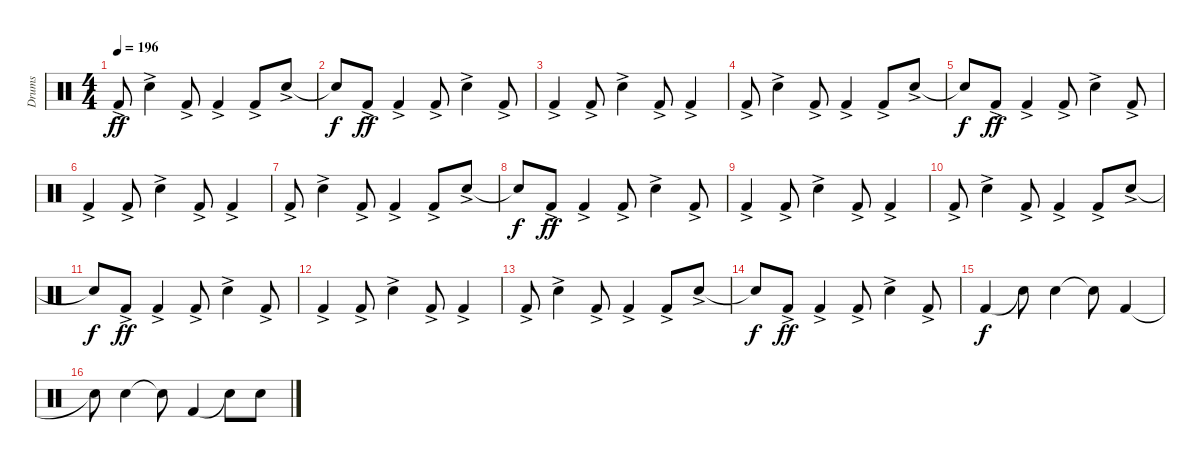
\track ("Drums" "Drums") {instrument percussion}
\staff {score}
\articulation defaults
\ts (4 4)
\tempo 196
\clef neutral
\ks c "Kick (hit) 2"{ac}.8{dy ff} "Electric Snare (hit)"{ac}.4 "Kick (hit) 2"{ac}.8 "Kick (hit) 2"{ac}.4 "Kick (hit) 2"{ac}.8 "Electric Snare (hit)"{ac}.8
|
"Snare (hit)"{t}.8{dy f} "Kick (hit) 2"{ac}.8{dy ff} "Kick (hit) 2"{ac}.4 "Kick (hit) 2"{ac}.8 "Electric Snare (hit)"{ac}.4 "Kick (hit) 2"{ac}.8 |
"Kick (hit) 2"{ac}.4 "Kick (hit) 2"{ac}.8 "Electric Snare (hit)"{ac}.4 "Kick (hit) 2"{ac}.8 "Kick (hit) 2"{ac}.4 |
"Kick (hit) 2"{ac}.8 "Electric Snare (hit)"{ac}.4 "Kick (hit) 2"{ac}.8 "Kick (hit) 2"{ac}.4 "Kick (hit) 2"{ac}.8 "Electric Snare (hit)"{ac}.8 |
"Snare (hit)"{t}.8{dy f} "Kick (hit) 2"{ac}.8{dy ff} "Kick (hit) 2"{ac}.4 "Kick (hit) 2"{ac}.8 "Electric Snare (hit)"{ac}.4 "Kick (hit) 2"{ac}.8 |
"Kick (hit) 2"{ac}.4 "Kick (hit) 2"{ac}.8 "Electric Snare (hit)"{ac}.4 "Kick (hit) 2"{ac}.8 "Kick (hit) 2"{ac}.4 |
"Kick (hit) 2"{ac}.8 "Electric Snare (hit)"{ac}.4 "Kick (hit) 2"{ac}.8 "Kick (hit) 2"{ac}.4 "Kick (hit) 2"{ac}.8 "Electric Snare (hit)"{ac}.8 |
"Snare (hit)"{t}.8{dy f} "Kick (hit) 2"{ac}.8{dy ff} "Kick (hit) 2"{ac}.4 "Kick (hit) 2"{ac}.8 "Electric Snare (hit)"{ac}.4 "Kick (hit) 2"{ac}.8 |
"Kick (hit) 2"{ac}.4 "Kick (hit) 2"{ac}.8 "Electric Snare (hit)"{ac}.4 "Kick (hit) 2"{ac}.8 "Kick (hit) 2"{ac}.4 |
"Kick (hit) 2"{ac}.8 "Electric Snare (hit)"{ac}.4 "Kick (hit) 2"{ac}.8 "Kick (hit) 2"{ac}.4 "Kick (hit) 2"{ac}.8 "Electric Snare (hit)"{ac}.8 |
"Snare (hit)"{t}.8{dy f} "Kick (hit) 2"{ac}.8{dy ff} "Kick (hit) 2"{ac}.4 "Kick (hit) 2"{ac}.8 "Electric Snare (hit)"{ac}.4 "Kick (hit) 2"{ac}.8 |
"Kick (hit) 2"{ac}.4 "Kick (hit) 2"{ac}.8 "Electric Snare (hit)"{ac}.4 "Kick (hit) 2"{ac}.8 "Kick (hit) 2"{ac}.4 |
"Kick (hit) 2"{ac}.8 "Electric Snare (hit)"{ac}.4 "Kick (hit) 2"{ac}.8 "Kick (hit) 2"{ac}.4 "Kick (hit) 2"{ac}.8 "Electric Snare (hit)"{ac}.8 |
"Snare (hit)"{t}.8{dy f} "Kick (hit) 2"{ac}.8{dy ff} "Kick (hit) 2"{ac}.4 "Kick (hit) 2"{ac}.8 "Electric Snare (hit)"{ac}.4 "Kick (hit) 2"{ac}.8 |
"Kick (hit) 2".4{dy f} "Snare (hit)"{t}.8 "Electric Snare (hit)".4 "Snare (hit)"{t}.8 "Kick (hit) 2".4 |
"Snare (hit)"{t}.8 "Electric Snare (hit)".4 "Snare (hit)"{t}.8 "Kick (hit) 2".4 "Snare (hit)"{t}.8 "Electric Snare (hit)".8
